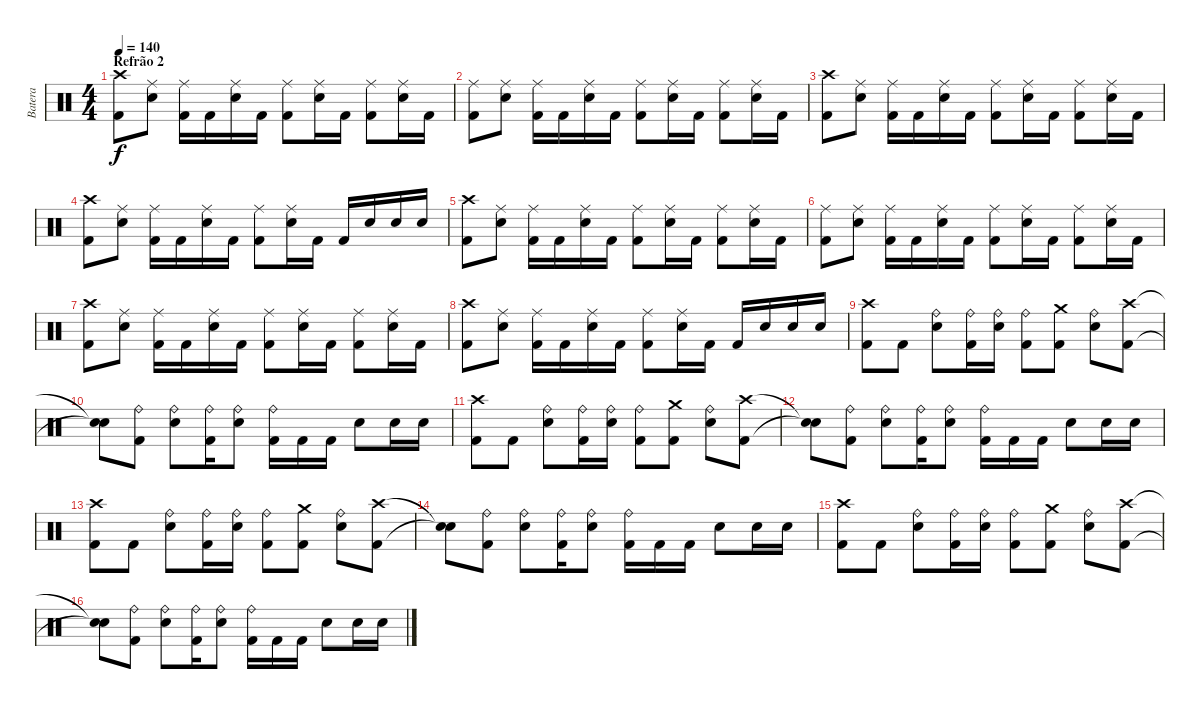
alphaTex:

\track ("Batera" "Batera") {instrument percussion}
\staff {score}
\articulation defaults
\ts (4 4)
\section ("" "Refrão 2")
\tempo 140
\clef neutral
\ks c
("Crash high (hit)" "Kick (hit) 2").8{dy f} ("Ride (middle)" "Electric Snare (hit)").8 ("Ride (middle)" "Kick (hit) 2").16 "Kick (hit) 2".16 ("Ride (middle)" "Electric Snare (hit)").16 "Kick (hit) 2".16 ("Ride (middle)" "Kick (hit) 2").8 ("Ride (middle)" "Electric Snare (hit)").16 "Kick (hit) 2".16 ("Ride (middle)" "Kick (hit) 2").8 ("Ride (middle)" "Electric Snare (hit)").16 "Kick (hit) 2".16 |
("Ride (middle)" "Kick (hit) 2").8 ("Ride (middle)" "Electric Snare (hit)").8 ("Ride (middle)" "Kick (hit) 2").16 "Kick (hit) 2".16 ("Ride (middle)" "Electric Snare (hit)").16 "Kick (hit) 2".16 ("Ride (middle)" "Kick (hit) 2").8 ("Ride (middle)" "Electric Snare (hit)").16 "Kick (hit) 2".16 ("Ride (middle)" "Kick (hit) 2").8 ("Ride (middle)" "Electric Snare (hit)").16 "Kick (hit) 2".16 |
("Crash high (hit)" "Kick (hit) 2").8 ("Ride (middle)" "Electric Snare (hit)").8 ("Ride (middle)" "Kick (hit) 2").16 "Kick (hit) 2".16 ("Ride (middle)" "Electric Snare (hit)").16 "Kick (hit) 2".16 ("Ride (middle)" "Kick (hit) 2").8 ("Ride (middle)" "Electric Snare (hit)").16 "Kick (hit) 2".16 ("Ride (middle)" "Kick (hit) 2").8 ("Ride (middle)" "Electric Snare (hit)").16 "Kick (hit) 2".16 |
("Crash high (hit)" "Kick (hit) 2").8 ("Ride (middle)" "Electric Snare (hit)").8 ("Ride (middle)" "Kick (hit) 2").16 "Kick (hit) 2".16 ("Ride (middle)" "Electric Snare (hit)").16 "Kick (hit) 2".16 ("Ride (middle)" "Kick (hit) 2").8 ("Ride (middle)" "Electric Snare (hit)").16 "Kick (hit) 2".16 "Kick (hit) 2".16 "Electric Snare (hit)".16 "Electric Snare (hit)".16 "Electric Snare (hit)".16 |
("Crash high (hit)" "Kick (hit) 2").8 ("Ride (middle)" "Electric Snare (hit)").8 ("Ride (middle)" "Kick (hit) 2").16 "Kick (hit) 2".16 ("Ride (middle)" "Electric Snare (hit)").16 "Kick (hit) 2".16 ("Ride (middle)" "Kick (hit) 2").8 ("Ride (middle)" "Electric Snare (hit)").16 "Kick (hit) 2".16 ("Ride (middle)" "Kick (hit) 2").8 ("Ride (middle)" "Electric Snare (hit)").16 "Kick (hit) 2".16 |
("Ride (middle)" "Kick (hit) 2").8 ("Ride (middle)" "Electric Snare (hit)").8 ("Ride (middle)" "Kick (hit) 2").16 "Kick (hit) 2".16 ("Ride (middle)" "Electric Snare (hit)").16 "Kick (hit) 2".16 ("Ride (middle)" "Kick (hit) 2").8 ("Ride (middle)" "Electric Snare (hit)").16 "Kick (hit) 2".16 ("Ride (middle)" "Kick (hit) 2").8 ("Ride (middle)" "Electric Snare (hit)").16 "Kick (hit) 2".16 |
("Crash high (hit)" "Kick (hit) 2").8 ("Ride (middle)" "Electric Snare (hit)").8 ("Ride (middle)" "Kick (hit) 2").16 "Kick (hit) 2".16 ("Ride (middle)" "Electric Snare (hit)").16 "Kick (hit) 2".16 ("Ride (middle)" "Kick (hit) 2").8 ("Ride (middle)" "Electric Snare (hit)").16 "Kick (hit) 2".16 ("Ride (middle)" "Kick (hit) 2").8 ("Ride (middle)" "Electric Snare (hit)").16 "Kick (hit) 2".16 |
("Crash high (hit)" "Kick (hit) 2").8 ("Ride (middle)" "Electric Snare (hit)").8 ("Ride (middle)" "Kick (hit) 2").16 "Kick (hit) 2".16 ("Ride (middle)" "Electric Snare (hit)").16 "Kick (hit) 2".16 ("Ride (middle)" "Kick (hit) 2").8 ("Ride (middle)" "Electric Snare (hit)").16 "Kick (hit) 2".16 "Kick (hit) 2".16 "Electric Snare (hit)".16 "Electric Snare (hit)".16 "Electric Snare (hit)".16 |
("Crash high (hit)" "Kick (hit) 2").8 "Kick (hit) 2".8 ("Ride (bell)" "Electric Snare (hit)").8 ("Ride (bell)" "Kick (hit) 2").16 ("Ride (bell)" "Electric Snare (hit)").16 ("Ride (bell)" "Kick (hit) 2").8 ("Crash medium (hit)" "Kick (hit) 2").8 ("Ride (bell)" "Electric Snare (hit)").8 ("Crash high (hit)" "Kick (hit) 2").8 |
("Snare (hit)"{t} "Snare (hit)"{t}).8 ("Ride (bell)" "Kick (hit) 2").8 ("Ride (bell)" "Electric Snare (hit)").8 ("Ride (bell)" "Kick (hit) 2").16 ("Ride (bell)" "Electric Snare (hit)").8 ("Ride (bell)" "Kick (hit) 2").16 "Kick (hit) 2".16 "Kick (hit) 2".16 "Electric Snare (hit)".8 "Electric Snare (hit)".16 "Electric Snare (hit)".16 |
("Crash high (hit)" "Kick (hit) 2").8 "Kick (hit) 2".8 ("Ride (bell)" "Electric Snare (hit)").8 ("Ride (bell)" "Kick (hit) 2").16 ("Ride (bell)" "Electric Snare (hit)").16 ("Ride (bell)" "Kick (hit) 2").8 ("Crash medium (hit)" "Kick (hit) 2").8 ("Ride (bell)" "Electric Snare (hit)").8 ("Crash high (hit)" "Kick (hit) 2").8 |
("Snare (hit)"{t} "Snare (hit)"{t}).8 ("Ride (bell)" "Kick (hit) 2").8 ("Ride (bell)" "Electric Snare (hit)").8 ("Ride (bell)" "Kick (hit) 2").16 ("Ride (bell)" "Electric Snare (hit)").8 ("Ride (bell)" "Kick (hit) 2").16 "Kick (hit) 2".16 "Kick (hit) 2".16 "Electric Snare (hit)".8 "Electric Snare (hit)".16 "Electric Snare (hit)".16 |
("Crash high (hit)" "Kick (hit) 2").8 "Kick (hit) 2".8 ("Ride (bell)" "Electric Snare (hit)").8 ("Ride (bell)" "Kick (hit) 2").16 ("Ride (bell)" "Electric Snare (hit)").16 ("Ride (bell)" "Kick (hit) 2").8 ("Crash medium (hit)" "Kick (hit) 2").8 ("Ride (bell)" "Electric Snare (hit)").8 ("Crash high (hit)" "Kick (hit) 2").8 |
("Snare (hit)"{t} "Snare (hit)"{t}).8 ("Ride (bell)" "Kick (hit) 2").8 ("Ride (bell)" "Electric Snare (hit)").8 ("Ride (bell)" "Kick (hit) 2").16 ("Ride (bell)" "Electric Snare (hit)").8 ("Ride (bell)" "Kick (hit) 2").16 "Kick (hit) 2".16 "Kick (hit) 2".16 "Electric Snare (hit)".8 "Electric Snare (hit)".16 "Electric Snare (hit)".16 |
("Crash high (hit)" "Kick (hit) 2").8 "Kick (hit) 2".8 ("Ride (bell)" "Electric Snare (hit)").8 ("Ride (bell)" "Kick (hit) 2").16 ("Ride (bell)" "Electric Snare (hit)").16 ("Ride (bell)" "Kick (hit) 2").8 ("Crash medium (hit)" "Kick (hit) 2").8 ("Ride (bell)" "Electric Snare (hit)").8 ("Crash high (hit)" "Kick (hit) 2").8 |
("Snare (hit)"{t} "Snare (hit)"{t}).8 ("Ride (bell)" "Kick (hit) 2").8 ("Ride (bell)" "Electric Snare (hit)").8 ("Ride (bell)" "Kick (hit) 2").16 ("Ride (bell)" "Electric Snare (hit)").8 ("Ride (bell)" "Kick (hit) 2").16 "Kick (hit) 2".16 "Kick (hit) 2".16 "Electric Snare (hit)".8 "Electric Snare (hit)".16 "Electric Snare (hit)".16
